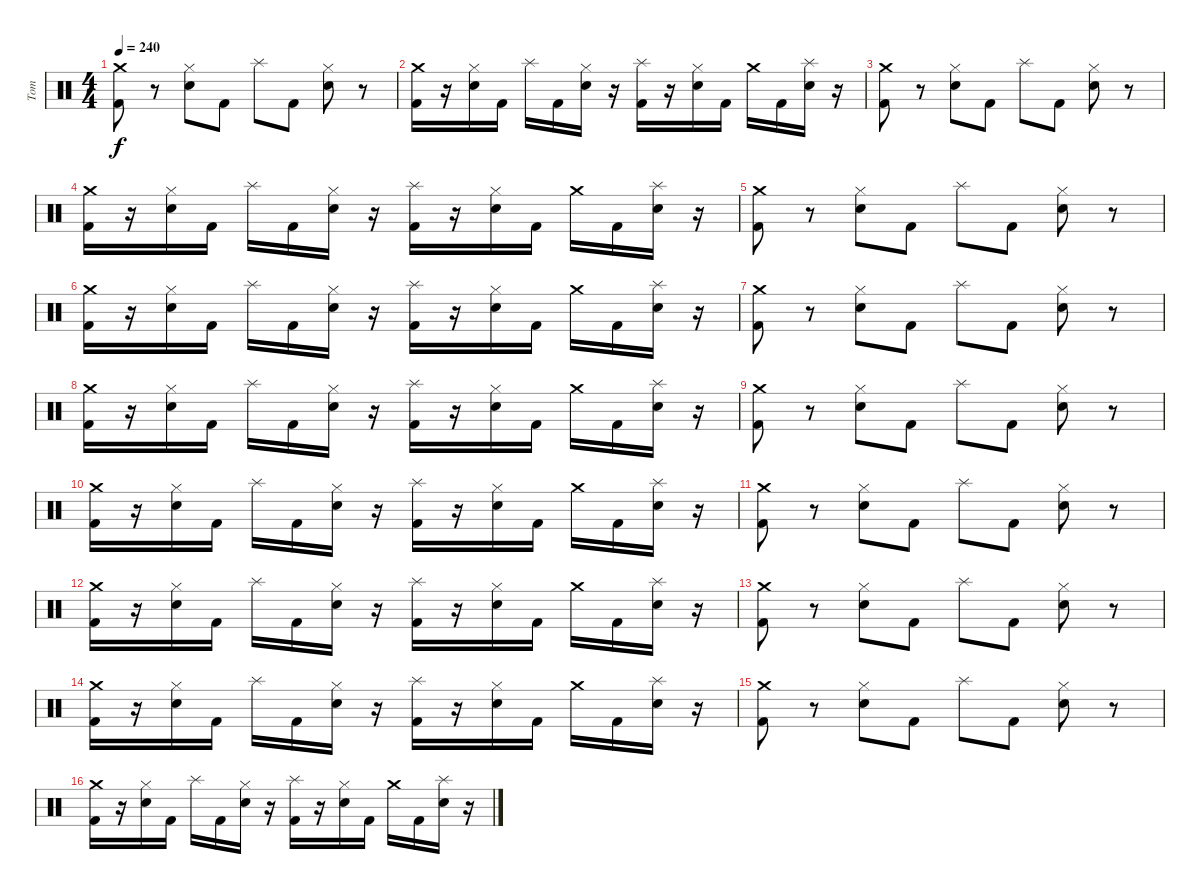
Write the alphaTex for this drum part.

\track ("Tom" "Tom") {instrument percussion}
\staff {score}
\articulation defaults
\ts (4 4)
\tempo 240
\clef neutral
\ks c
("Crash medium (hit)" "Kick (hit) 2").8{dy f} r.8 ("Hi-Hat (closed)" "Electric Snare (hit)").8 "Kick (hit) 2".8 "Splash (hit)".8 "Kick (hit) 2".8 ("Hi-Hat (closed)" "Electric Snare (hit)").8 r.8 |
("Crash medium (hit)" "Kick (hit) 2").16 r.16 ("Hi-Hat (closed)" "Electric Snare (hit)").16 "Kick (hit) 2".16 "Splash (hit)".16 "Kick (hit) 2".16 ("Hi-Hat (closed)" "Electric Snare (hit)").16 r.16 ("Splash (hit)" "Kick (hit) 2").16 r.16 ("Hi-Hat (closed)" "Electric Snare (hit)").16 "Kick (hit) 2".16 "Crash medium (hit)".16 "Kick (hit) 2".16 ("Splash (hit)" "Electric Snare (hit)").16 r.16 |
("Crash medium (hit)" "Kick (hit) 2").8 r.8 ("Hi-Hat (closed)" "Electric Snare (hit)").8 "Kick (hit) 2".8 "Splash (hit)".8 "Kick (hit) 2".8 ("Hi-Hat (closed)" "Electric Snare (hit)").8 r.8 |
("Crash medium (hit)" "Kick (hit) 2").16 r.16 ("Hi-Hat (closed)" "Electric Snare (hit)").16 "Kick (hit) 2".16 "Splash (hit)".16 "Kick (hit) 2".16 ("Hi-Hat (closed)" "Electric Snare (hit)").16 r.16 ("Splash (hit)" "Kick (hit) 2").16 r.16 ("Hi-Hat (closed)" "Electric Snare (hit)").16 "Kick (hit) 2".16 "Crash medium (hit)".16 "Kick (hit) 2".16 ("Splash (hit)" "Electric Snare (hit)").16 r.16 |
("Crash medium (hit)" "Kick (hit) 2").8 r.8 ("Hi-Hat (closed)" "Electric Snare (hit)").8 "Kick (hit) 2".8 "Splash (hit)".8 "Kick (hit) 2".8 ("Hi-Hat (closed)" "Electric Snare (hit)").8 r.8 |
("Crash medium (hit)" "Kick (hit) 2").16 r.16 ("Hi-Hat (closed)" "Electric Snare (hit)").16 "Kick (hit) 2".16 "Splash (hit)".16 "Kick (hit) 2".16 ("Hi-Hat (closed)" "Electric Snare (hit)").16 r.16 ("Splash (hit)" "Kick (hit) 2").16 r.16 ("Hi-Hat (closed)" "Electric Snare (hit)").16 "Kick (hit) 2".16 "Crash medium (hit)".16 "Kick (hit) 2".16 ("Splash (hit)" "Electric Snare (hit)").16 r.16 |
("Crash medium (hit)" "Kick (hit) 2").8 r.8 ("Hi-Hat (closed)" "Electric Snare (hit)").8 "Kick (hit) 2".8 "Splash (hit)".8 "Kick (hit) 2".8 ("Hi-Hat (closed)" "Electric Snare (hit)").8 r.8 |
("Crash medium (hit)" "Kick (hit) 2").16 r.16 ("Hi-Hat (closed)" "Electric Snare (hit)").16 "Kick (hit) 2".16 "Splash (hit)".16 "Kick (hit) 2".16 ("Hi-Hat (closed)" "Electric Snare (hit)").16 r.16 ("Splash (hit)" "Kick (hit) 2").16 r.16 ("Hi-Hat (closed)" "Electric Snare (hit)").16 "Kick (hit) 2".16 "Crash medium (hit)".16 "Kick (hit) 2".16 ("Splash (hit)" "Electric Snare (hit)").16 r.16 |
("Crash medium (hit)" "Kick (hit) 2").8 r.8 ("Hi-Hat (closed)" "Electric Snare (hit)").8 "Kick (hit) 2".8 "Splash (hit)".8 "Kick (hit) 2".8 ("Hi-Hat (closed)" "Electric Snare (hit)").8 r.8 |
("Crash medium (hit)" "Kick (hit) 2").16 r.16 ("Hi-Hat (closed)" "Electric Snare (hit)").16 "Kick (hit) 2".16 "Splash (hit)".16 "Kick (hit) 2".16 ("Hi-Hat (closed)" "Electric Snare (hit)").16 r.16 ("Splash (hit)" "Kick (hit) 2").16 r.16 ("Hi-Hat (closed)" "Electric Snare (hit)").16 "Kick (hit) 2".16 "Crash medium (hit)".16 "Kick (hit) 2".16 ("Splash (hit)" "Electric Snare (hit)").16 r.16 |
("Crash medium (hit)" "Kick (hit) 2").8 r.8 ("Hi-Hat (closed)" "Electric Snare (hit)").8 "Kick (hit) 2".8 "Splash (hit)".8 "Kick (hit) 2".8 ("Hi-Hat (closed)" "Electric Snare (hit)").8 r.8 |
("Crash medium (hit)" "Kick (hit) 2").16 r.16 ("Hi-Hat (closed)" "Electric Snare (hit)").16 "Kick (hit) 2".16 "Splash (hit)".16 "Kick (hit) 2".16 ("Hi-Hat (closed)" "Electric Snare (hit)").16 r.16 ("Splash (hit)" "Kick (hit) 2").16 r.16 ("Hi-Hat (closed)" "Electric Snare (hit)").16 "Kick (hit) 2".16 "Crash medium (hit)".16 "Kick (hit) 2".16 ("Splash (hit)" "Electric Snare (hit)").16 r.16 |
("Crash medium (hit)" "Kick (hit) 2").8 r.8 ("Hi-Hat (closed)" "Electric Snare (hit)").8 "Kick (hit) 2".8 "Splash (hit)".8 "Kick (hit) 2".8 ("Hi-Hat (closed)" "Electric Snare (hit)").8 r.8 |
("Crash medium (hit)" "Kick (hit) 2").16 r.16 ("Hi-Hat (closed)" "Electric Snare (hit)").16 "Kick (hit) 2".16 "Splash (hit)".16 "Kick (hit) 2".16 ("Hi-Hat (closed)" "Electric Snare (hit)").16 r.16 ("Splash (hit)" "Kick (hit) 2").16 r.16 ("Hi-Hat (closed)" "Electric Snare (hit)").16 "Kick (hit) 2".16 "Crash medium (hit)".16 "Kick (hit) 2".16 ("Splash (hit)" "Electric Snare (hit)").16 r.16 |
("Crash medium (hit)" "Kick (hit) 2").8 r.8 ("Hi-Hat (closed)" "Electric Snare (hit)").8 "Kick (hit) 2".8 "Splash (hit)".8 "Kick (hit) 2".8 ("Hi-Hat (closed)" "Electric Snare (hit)").8 r.8 |
("Crash medium (hit)" "Kick (hit) 2").16 r.16 ("Hi-Hat (closed)" "Electric Snare (hit)").16 "Kick (hit) 2".16 "Splash (hit)".16 "Kick (hit) 2".16 ("Hi-Hat (closed)" "Electric Snare (hit)").16 r.16 ("Splash (hit)" "Kick (hit) 2").16 r.16 ("Hi-Hat (closed)" "Electric Snare (hit)").16 "Kick (hit) 2".16 "Crash medium (hit)".16 "Kick (hit) 2".16 ("Splash (hit)" "Electric Snare (hit)").16 r.16
